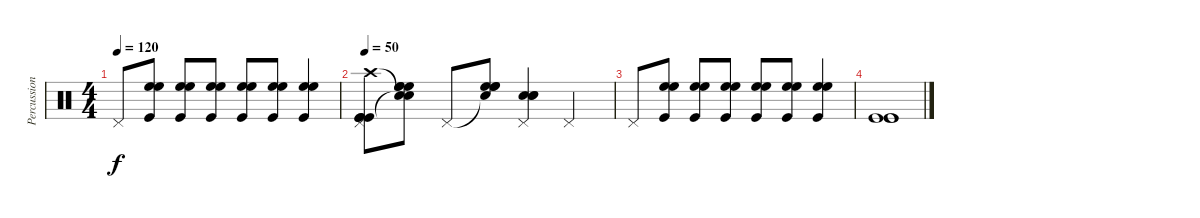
\track ("Percussions" "Percussion") {instrument percussion}
\staff {score}
\articulation defaults
\ts (4 4)
\tempo 120
\clef neutral
\ks c "Pedal Hi-Hat (hit)".8{dy f}
("High Floor Tom (hit)" "High Floor Tom (hit)" "Kick (hit)").8 ("High Floor Tom (hit)" "High Floor Tom (hit)" "Kick (hit)").8 ("High Floor Tom (hit)" "High Floor Tom (hit)" "Kick (hit)").8 ("High Floor Tom (hit)" "High Floor Tom (hit)" "Kick (hit)").8 ("High Floor Tom (hit)" "High Floor Tom (hit)" "Kick (hit)").8 ("High Floor Tom (hit)" "High Floor Tom (hit)" "Kick (hit)").4 |
\tempo 50
("Pedal Hi-Hat (hit)" "Crash high (hit)" "Kick (hit)" "Kick (hit)" "Kick (hit)").8 ("Snare (hit)"{t} "Snare (hit)"{t} "High Floor Tom (hit)" "High Floor Tom (hit)" "High Floor Tom (hit)").8 "Pedal Hi-Hat (hit)".8 ("Snare (hit)"{t} "High Floor Tom (hit)" "High Floor Tom (hit)" "High Floor Tom (hit)").8 ("Pedal Hi-Hat (hit)" "Snare (hit) 2" "Snare (hit) 2" "Snare (hit) 2").4 "Pedal Hi-Hat (hit)".4 |
"Pedal Hi-Hat (hit)".8 ("High Floor Tom (hit)" "High Floor Tom (hit)" "Kick (hit)").8 ("High Floor Tom (hit)" "High Floor Tom (hit)" "Kick (hit)").8 ("High Floor Tom (hit)" "High Floor Tom (hit)" "Kick (hit)").8 ("High Floor Tom (hit)" "High Floor Tom (hit)" "Kick (hit)").8 ("High Floor Tom (hit)" "High Floor Tom (hit)" "Kick (hit)").8 ("High Floor Tom (hit)" "High Floor Tom (hit)" "Kick (hit)").4 |
("Kick (hit)" "Kick (hit)" "Kick (hit)").1
